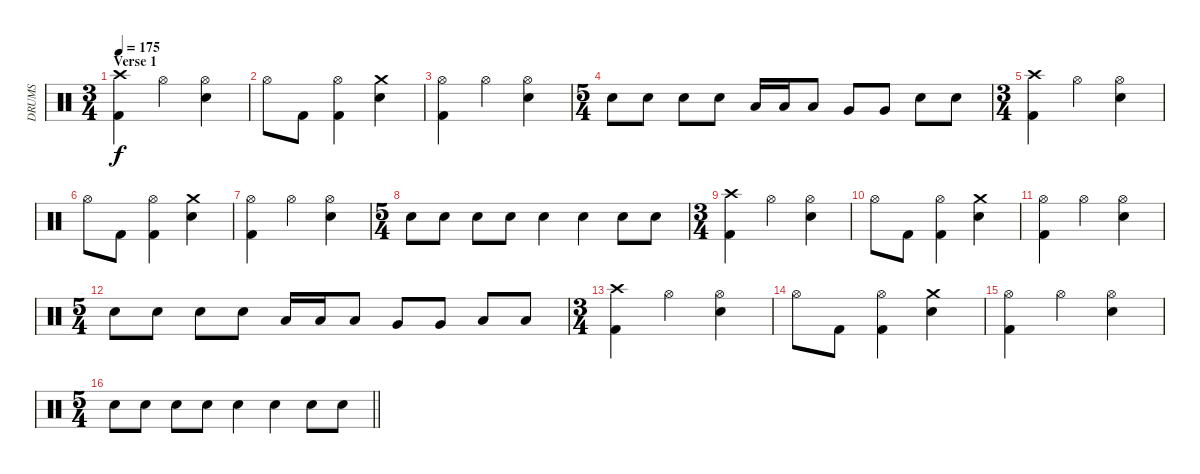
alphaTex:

\track ("DRUMS" "DRUMS") {instrument percussion}
\staff {score}
\articulation defaults
\ts (3 4)
\section ("" "Verse 1")
\tempo 175
\clef neutral
\ks c
("Crash high (hit)" "Kick (hit) 2").4{dy f} "Hi-Hat (open)".4 ("Hi-Hat (open)" "Snare (hit) 2").4 |
"Hi-Hat (open)".8 "Kick (hit) 2".8 ("Hi-Hat (open)" "Kick (hit) 2").4 ("Crash medium (hit)" "Snare (hit) 2").4 |
("Hi-Hat (open)" "Kick (hit) 2").4 "Hi-Hat (open)".4 ("Hi-Hat (open)" "Snare (hit) 2").4 |
\ts (5 4)
"Snare (hit) 2".8 "Snare (hit) 2".8 "Snare (hit) 2".8 "Snare (hit) 2".8 "Low Tom (hit)".16 "Low Tom (hit)".16 "Low Tom (hit)".8 "Very Low Tom (hit)".8 "Very Low Tom (hit)".8 "Snare (hit) 2".8 "Snare (hit) 2".8 |
\ts (3 4)
("Crash high (hit)" "Kick (hit) 2").4 "Hi-Hat (open)".4 ("Hi-Hat (open)" "Snare (hit) 2").4 |
"Hi-Hat (open)".8 "Kick (hit) 2".8 ("Hi-Hat (open)" "Kick (hit) 2").4 ("Crash medium (hit)" "Snare (hit) 2").4 |
("Hi-Hat (open)" "Kick (hit) 2").4 "Hi-Hat (open)".4 ("Hi-Hat (open)" "Snare (hit) 2").4 |
\ts (5 4)
"Snare (hit) 2".8 "Snare (hit) 2".8 "Snare (hit) 2".8 "Snare (hit) 2".8 "Snare (hit) 2".4 "Snare (hit) 2".4 "Snare (hit) 2".8 "Snare (hit) 2".8 |
\ts (3 4)
("Crash high (hit)" "Kick (hit) 2").4 "Hi-Hat (open)".4 ("Hi-Hat (open)" "Snare (hit) 2").4 |
"Hi-Hat (open)".8 "Kick (hit) 2".8 ("Hi-Hat (open)" "Kick (hit) 2").4 ("Crash medium (hit)" "Snare (hit) 2").4 |
("Hi-Hat (open)" "Kick (hit) 2").4 "Hi-Hat (open)".4 ("Hi-Hat (open)" "Snare (hit) 2").4 |
\ts (5 4)
"Snare (hit) 2".8 "Snare (hit) 2".8 "Snare (hit) 2".8 "Snare (hit) 2".8 "Low Tom (hit)".16 "Low Tom (hit)".16 "Low Tom (hit)".8 "Very Low Tom (hit)".8 "Very Low Tom (hit)".8 "Low Floor Tom (hit)".8 "Low Floor Tom (hit)".8 |
\ts (3 4)
("Crash high (hit)" "Kick (hit) 2").4 "Hi-Hat (open)".4 ("Hi-Hat (open)" "Snare (hit) 2").4 |
"Hi-Hat (open)".8 "Kick (hit) 2".8 ("Hi-Hat (open)" "Kick (hit) 2").4 ("Crash medium (hit)" "Snare (hit) 2").4 |
("Hi-Hat (open)" "Kick (hit) 2").4 "Hi-Hat (open)".4 ("Hi-Hat (open)" "Snare (hit) 2").4 |
\ts (5 4)
\barLineRight lightlight "Snare (hit) 2".8 "Snare (hit) 2".8 "Snare (hit) 2".8 "Snare (hit) 2".8 "Snare (hit) 2".4 "Snare (hit) 2".4 "Snare (hit) 2".8 "Snare (hit) 2".8
